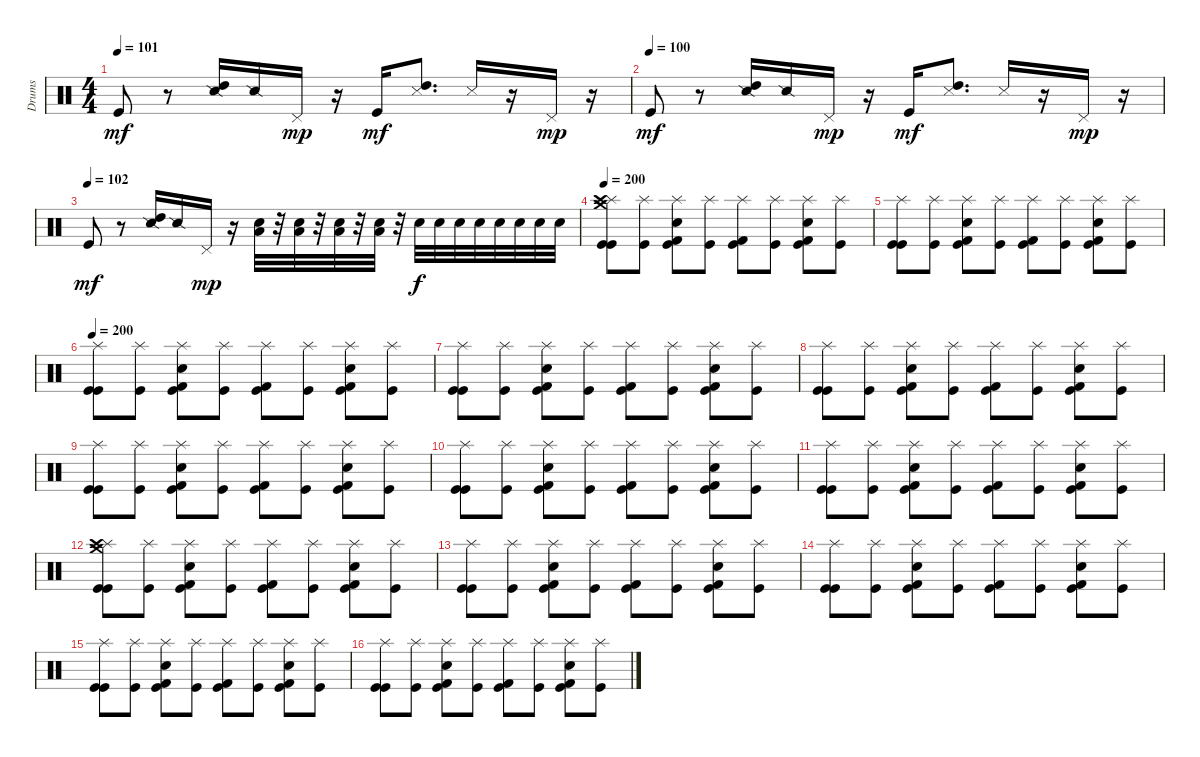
\track ("Drums" "Drums") {instrument percussion}
\staff {score}
\articulation defaults
\ts (4 4)
\tempo 101
\clef neutral
\ks c "Kick (hit)".8{dy mf}
r.8 ("High Tom (hit)" "Snare (side stick) 2").16 "Snare (side stick) 2".16 "Pedal Hi-Hat (hit)".16{dy mp} r.16 "Kick (hit)".16{dy mf} ("High Tom (hit)" "Snare (side stick) 3").8{d} "Snare (side stick) 3".16 r.16 "Pedal Hi-Hat (hit)".16{dy mp} r.16 |
\tempo (100)
"Kick (hit)".8{dy mf} r.8 ("High Tom (hit)" "Snare (side stick) 2").16 "Snare (side stick) 2".16 "Pedal Hi-Hat (hit)".16{dy mp} r.16 "Kick (hit)".16{dy mf} ("High Tom (hit)" "Snare (side stick) 3").8{d} "Snare (side stick) 3".16 r.16 "Pedal Hi-Hat (hit)".16{dy mp} r.16 |
\tempo (102)
"Kick (hit)".8{dy mf} r.8 ("High Tom (hit)" "Snare (side stick) 2").16 "Snare (side stick) 2".16 "Pedal Hi-Hat (hit)".16{dy mp} r.16 ("Snare (hit) 2" "Low Tom (hit)").32 r.32 ("Snare (hit) 2" "Low Tom (hit)").32 r.32 ("Snare (hit) 2" "Low Tom (hit)").32 r.32 ("Snare (hit) 2" "Low Tom (hit)").32 r.32 "Snare (hit) 2".32{dy f} "Snare (hit) 2".32 "Snare (hit) 2".32 "Snare (hit) 2".32 "Snare (hit) 2".32 "Snare (hit) 2".32 "Snare (hit) 2".32 "Snare (hit) 2".32 |
\tempo 200
("Splash (hit)" "Crash high (hit)" "Crash medium (hit)" "Kick (hit)" "Kick (hit)").8 ("Splash (hit)" "Kick (hit)").8 ("Splash (hit)" "Snare (hit) 2" "Kick (hit) 2" "Kick (hit)").8 ("Splash (hit)" "Kick (hit)").8 ("Splash (hit)" "Kick (hit) 2" "Kick (hit)").8 ("Splash (hit)" "Kick (hit)").8 ("Splash (hit)" "Snare (hit) 2" "Kick (hit) 2" "Kick (hit)").8 ("Splash (hit)" "Kick (hit)").8 |
("Splash (hit)" "Kick (hit)" "Kick (hit)").8 ("Splash (hit)" "Kick (hit)").8 ("Splash (hit)" "Snare (hit) 2" "Kick (hit) 2" "Kick (hit)").8 ("Splash (hit)" "Kick (hit)").8 ("Splash (hit)" "Kick (hit) 2" "Kick (hit)").8 ("Splash (hit)" "Kick (hit)").8 ("Splash (hit)" "Snare (hit) 2" "Kick (hit) 2" "Kick (hit)").8 ("Splash (hit)" "Kick (hit)").8 |
\tempo 200
("Splash (hit)" "Kick (hit)" "Kick (hit)").8 ("Splash (hit)" "Kick (hit)").8 ("Splash (hit)" "Snare (hit) 2" "Kick (hit) 2" "Kick (hit)").8 ("Splash (hit)" "Kick (hit)").8 ("Splash (hit)" "Kick (hit) 2" "Kick (hit)").8 ("Splash (hit)" "Kick (hit)").8 ("Splash (hit)" "Snare (hit) 2" "Kick (hit) 2" "Kick (hit)").8 ("Splash (hit)" "Kick (hit)").8 |
("Splash (hit)" "Kick (hit)" "Kick (hit)").8 ("Splash (hit)" "Kick (hit)").8 ("Splash (hit)" "Snare (hit) 2" "Kick (hit) 2" "Kick (hit)").8 ("Splash (hit)" "Kick (hit)").8 ("Splash (hit)" "Kick (hit) 2" "Kick (hit)").8 ("Splash (hit)" "Kick (hit)").8 ("Splash (hit)" "Snare (hit) 2" "Kick (hit) 2" "Kick (hit)").8 ("Splash (hit)" "Kick (hit)").8 |
("Splash (hit)" "Kick (hit)" "Kick (hit)").8 ("Splash (hit)" "Kick (hit)").8 ("Splash (hit)" "Snare (hit) 2" "Kick (hit) 2" "Kick (hit)").8 ("Splash (hit)" "Kick (hit)").8 ("Splash (hit)" "Kick (hit) 2" "Kick (hit)").8 ("Splash (hit)" "Kick (hit)").8 ("Splash (hit)" "Snare (hit) 2" "Kick (hit) 2" "Kick (hit)").8 ("Splash (hit)" "Kick (hit)").8 |
("Splash (hit)" "Kick (hit)" "Kick (hit)").8 ("Splash (hit)" "Kick (hit)").8 ("Splash (hit)" "Snare (hit) 2" "Kick (hit) 2" "Kick (hit)").8 ("Splash (hit)" "Kick (hit)").8 ("Splash (hit)" "Kick (hit) 2" "Kick (hit)").8 ("Splash (hit)" "Kick (hit)").8 ("Splash (hit)" "Snare (hit) 2" "Kick (hit) 2" "Kick (hit)").8 ("Splash (hit)" "Kick (hit)").8 |
("Splash (hit)" "Kick (hit)" "Kick (hit)").8 ("Splash (hit)" "Kick (hit)").8 ("Splash (hit)" "Snare (hit) 2" "Kick (hit) 2" "Kick (hit)").8 ("Splash (hit)" "Kick (hit)").8 ("Splash (hit)" "Kick (hit) 2" "Kick (hit)").8 ("Splash (hit)" "Kick (hit)").8 ("Splash (hit)" "Snare (hit) 2" "Kick (hit) 2" "Kick (hit)").8 ("Splash (hit)" "Kick (hit)").8 |
("Splash (hit)" "Kick (hit)" "Kick (hit)").8 ("Splash (hit)" "Kick (hit)").8 ("Splash (hit)" "Snare (hit) 2" "Kick (hit) 2" "Kick (hit)").8 ("Splash (hit)" "Kick (hit)").8 ("Splash (hit)" "Kick (hit) 2" "Kick (hit)").8 ("Splash (hit)" "Kick (hit)").8 ("Splash (hit)" "Snare (hit) 2" "Kick (hit) 2" "Kick (hit)").8 ("Splash (hit)" "Kick (hit)").8 |
("Splash (hit)" "Crash high (hit)" "Crash medium (hit)" "Kick (hit)" "Kick (hit)").8 ("Splash (hit)" "Kick (hit)").8 ("Splash (hit)" "Snare (hit) 2" "Kick (hit) 2" "Kick (hit)").8 ("Splash (hit)" "Kick (hit)").8 ("Splash (hit)" "Kick (hit) 2" "Kick (hit)").8 ("Splash (hit)" "Kick (hit)").8 ("Splash (hit)" "Snare (hit) 2" "Kick (hit) 2" "Kick (hit)").8 ("Splash (hit)" "Kick (hit)").8 |
("Splash (hit)" "Kick (hit)" "Kick (hit)").8 ("Splash (hit)" "Kick (hit)").8 ("Splash (hit)" "Snare (hit) 2" "Kick (hit) 2" "Kick (hit)").8 ("Splash (hit)" "Kick (hit)").8 ("Splash (hit)" "Kick (hit) 2" "Kick (hit)").8 ("Splash (hit)" "Kick (hit)").8 ("Splash (hit)" "Snare (hit) 2" "Kick (hit) 2" "Kick (hit)").8 ("Splash (hit)" "Kick (hit)").8 |
("Splash (hit)" "Kick (hit)" "Kick (hit)").8 ("Splash (hit)" "Kick (hit)").8 ("Splash (hit)" "Snare (hit) 2" "Kick (hit) 2" "Kick (hit)").8 ("Splash (hit)" "Kick (hit)").8 ("Splash (hit)" "Kick (hit) 2" "Kick (hit)").8 ("Splash (hit)" "Kick (hit)").8 ("Splash (hit)" "Snare (hit) 2" "Kick (hit) 2" "Kick (hit)").8 ("Splash (hit)" "Kick (hit)").8 |
("Splash (hit)" "Kick (hit)" "Kick (hit)").8 ("Splash (hit)" "Kick (hit)").8 ("Splash (hit)" "Snare (hit) 2" "Kick (hit) 2" "Kick (hit)").8 ("Splash (hit)" "Kick (hit)").8 ("Splash (hit)" "Kick (hit) 2" "Kick (hit)").8 ("Splash (hit)" "Kick (hit)").8 ("Splash (hit)" "Snare (hit) 2" "Kick (hit) 2" "Kick (hit)").8 ("Splash (hit)" "Kick (hit)").8 |
("Splash (hit)" "Kick (hit)" "Kick (hit)").8 ("Splash (hit)" "Kick (hit)").8 ("Splash (hit)" "Snare (hit) 2" "Kick (hit) 2" "Kick (hit)").8 ("Splash (hit)" "Kick (hit)").8 ("Splash (hit)" "Kick (hit) 2" "Kick (hit)").8 ("Splash (hit)" "Kick (hit)").8 ("Splash (hit)" "Snare (hit) 2" "Kick (hit) 2" "Kick (hit)").8 ("Splash (hit)" "Kick (hit)").8
